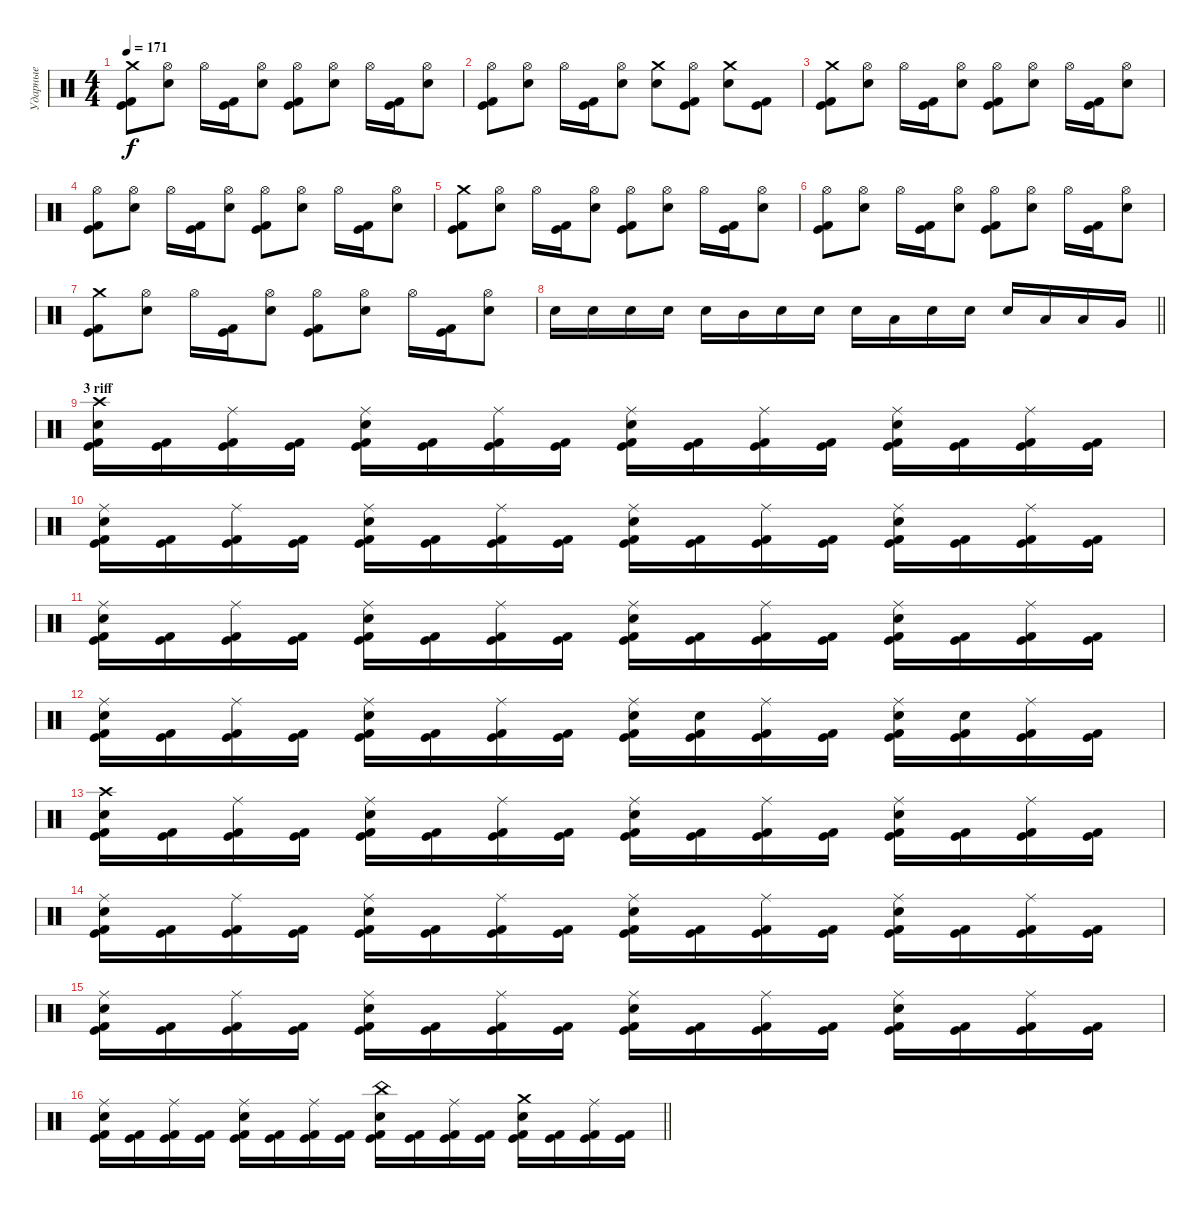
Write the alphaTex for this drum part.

\track ("Ударные" "Ударные") {instrument percussion}
\staff {score}
\articulation defaults
\ts (4 4)
\tempo 171
\clef neutral
\ks c
("Crash medium (hit)" "Kick (hit)" "Kick (hit) 2").8{dy f} ("Hi-Hat (open)" "Electric Snare (hit)").8 "Hi-Hat (open)".16 ("Kick (hit)" "Kick (hit) 2").16 ("Hi-Hat (open)" "Electric Snare (hit)").8 ("Hi-Hat (open)" "Kick (hit)" "Kick (hit) 2").8 ("Hi-Hat (open)" "Electric Snare (hit)").8 "Hi-Hat (open)".16 ("Kick (hit)" "Kick (hit) 2").16 ("Hi-Hat (open)" "Electric Snare (hit)").8 |
("Hi-Hat (open)" "Kick (hit)" "Kick (hit) 2").8 ("Hi-Hat (open)" "Electric Snare (hit)").8 "Hi-Hat (open)".16 ("Kick (hit)" "Kick (hit) 2").16 ("Hi-Hat (open)" "Electric Snare (hit)").8 ("Crash medium (hit)" "Electric Snare (hit)").8 ("Hi-Hat (open)" "Kick (hit)" "Kick (hit) 2").8 ("Crash medium (hit)" "Electric Snare (hit)").8 ("Kick (hit)" "Kick (hit) 2").8 |
("Crash medium (hit)" "Kick (hit)" "Kick (hit) 2").8 ("Hi-Hat (open)" "Electric Snare (hit)").8 "Hi-Hat (open)".16 ("Kick (hit)" "Kick (hit) 2").16 ("Hi-Hat (open)" "Electric Snare (hit)").8 ("Hi-Hat (open)" "Kick (hit)" "Kick (hit) 2").8 ("Hi-Hat (open)" "Electric Snare (hit)").8 "Hi-Hat (open)".16 ("Kick (hit)" "Kick (hit) 2").16 ("Hi-Hat (open)" "Electric Snare (hit)").8 |
("Hi-Hat (open)" "Kick (hit)" "Kick (hit) 2").8 ("Hi-Hat (open)" "Electric Snare (hit)").8 "Hi-Hat (open)".16 ("Kick (hit)" "Kick (hit) 2").16 ("Hi-Hat (open)" "Electric Snare (hit)").8 ("Hi-Hat (open)" "Kick (hit)" "Kick (hit) 2").8 ("Hi-Hat (open)" "Electric Snare (hit)").8 "Hi-Hat (open)".16 ("Kick (hit)" "Kick (hit) 2").16 ("Hi-Hat (open)" "Electric Snare (hit)").8 |
("Crash medium (hit)" "Kick (hit)" "Kick (hit) 2").8 ("Hi-Hat (open)" "Electric Snare (hit)").8 "Hi-Hat (open)".16 ("Kick (hit)" "Kick (hit) 2").16 ("Hi-Hat (open)" "Electric Snare (hit)").8 ("Hi-Hat (open)" "Kick (hit)" "Kick (hit) 2").8 ("Hi-Hat (open)" "Electric Snare (hit)").8 "Hi-Hat (open)".16 ("Kick (hit)" "Kick (hit) 2").16 ("Hi-Hat (open)" "Electric Snare (hit)").8 |
("Hi-Hat (open)" "Kick (hit)" "Kick (hit) 2").8 ("Hi-Hat (open)" "Electric Snare (hit)").8 "Hi-Hat (open)".16 ("Kick (hit)" "Kick (hit) 2").16 ("Hi-Hat (open)" "Electric Snare (hit)").8 ("Hi-Hat (open)" "Kick (hit)" "Kick (hit) 2").8 ("Hi-Hat (open)" "Electric Snare (hit)").8 "Hi-Hat (open)".16 ("Kick (hit)" "Kick (hit) 2").16 ("Hi-Hat (open)" "Electric Snare (hit)").8 |
("Crash medium (hit)" "Kick (hit)" "Kick (hit) 2").8 ("Hi-Hat (open)" "Electric Snare (hit)").8 "Hi-Hat (open)".16 ("Kick (hit)" "Kick (hit) 2").16 ("Hi-Hat (open)" "Electric Snare (hit)").8 ("Hi-Hat (open)" "Kick (hit)" "Kick (hit) 2").8 ("Hi-Hat (open)" "Electric Snare (hit)").8 "Hi-Hat (open)".16 ("Kick (hit)" "Kick (hit) 2").16 ("Hi-Hat (open)" "Electric Snare (hit)").8 |
\barLineRight lightlight "Electric Snare (hit)".16 "Electric Snare (hit)".16 "Electric Snare (hit)".16 "Electric Snare (hit)".16 "Electric Snare (hit)".16 "Mid Tom (hit)".16 "Electric Snare (hit)".16 "Electric Snare (hit)".16 "Electric Snare (hit)".16 "Low Tom (hit)".16 "Electric Snare (hit)".16 "Electric Snare (hit)".16 "Electric Snare (hit)".16 "Low Tom (hit)".16 "Low Tom (hit)".16 "Very Low Tom (hit)".16
|
\section ("" "3 riff")
("Crash high (hit)" "Electric Snare (hit)" "Kick (hit)" "Kick (hit) 2").16 ("Kick (hit)" "Kick (hit) 2").16 ("Ride (middle)" "Kick (hit)" "Kick (hit) 2").16 ("Kick (hit)" "Kick (hit) 2").16 ("Ride (middle)" "Electric Snare (hit)" "Kick (hit)" "Kick (hit) 2").16 ("Kick (hit)" "Kick (hit) 2").16 ("Ride (middle)" "Kick (hit)" "Kick (hit) 2").16 ("Kick (hit)" "Kick (hit) 2").16 ("Ride (middle)" "Electric Snare (hit)" "Kick (hit)" "Kick (hit) 2").16 ("Kick (hit)" "Kick (hit) 2").16 ("Ride (middle)" "Kick (hit)" "Kick (hit) 2").16 ("Kick (hit)" "Kick (hit) 2").16 ("Ride (middle)" "Electric Snare (hit)" "Kick (hit)" "Kick (hit) 2").16 ("Kick (hit)" "Kick (hit) 2").16 ("Ride (middle)" "Kick (hit)" "Kick (hit) 2").16 ("Kick (hit)" "Kick (hit) 2").16 |
("Ride (middle)" "Electric Snare (hit)" "Kick (hit)" "Kick (hit) 2").16 ("Kick (hit)" "Kick (hit) 2").16 ("Ride (middle)" "Kick (hit)" "Kick (hit) 2").16 ("Kick (hit)" "Kick (hit) 2").16 ("Ride (middle)" "Electric Snare (hit)" "Kick (hit)" "Kick (hit) 2").16 ("Kick (hit)" "Kick (hit) 2").16 ("Ride (middle)" "Kick (hit)" "Kick (hit) 2").16 ("Kick (hit)" "Kick (hit) 2").16 ("Ride (middle)" "Electric Snare (hit)" "Kick (hit)" "Kick (hit) 2").16 ("Kick (hit)" "Kick (hit) 2").16 ("Ride (middle)" "Kick (hit)" "Kick (hit) 2").16 ("Kick (hit)" "Kick (hit) 2").16 ("Ride (middle)" "Electric Snare (hit)" "Kick (hit)" "Kick (hit) 2").16 ("Kick (hit)" "Kick (hit) 2").16 ("Ride (middle)" "Kick (hit)" "Kick (hit) 2").16 ("Kick (hit)" "Kick (hit) 2").16 |
("Ride (middle)" "Electric Snare (hit)" "Kick (hit)" "Kick (hit) 2").16 ("Kick (hit)" "Kick (hit) 2").16 ("Ride (middle)" "Kick (hit)" "Kick (hit) 2").16 ("Kick (hit)" "Kick (hit) 2").16 ("Ride (middle)" "Electric Snare (hit)" "Kick (hit)" "Kick (hit) 2").16 ("Kick (hit)" "Kick (hit) 2").16 ("Ride (middle)" "Kick (hit)" "Kick (hit) 2").16 ("Kick (hit)" "Kick (hit) 2").16 ("Ride (middle)" "Electric Snare (hit)" "Kick (hit)" "Kick (hit) 2").16 ("Kick (hit)" "Kick (hit) 2").16 ("Ride (middle)" "Kick (hit)" "Kick (hit) 2").16 ("Kick (hit)" "Kick (hit) 2").16 ("Ride (middle)" "Electric Snare (hit)" "Kick (hit)" "Kick (hit) 2").16 ("Kick (hit)" "Kick (hit) 2").16 ("Ride (middle)" "Kick (hit)" "Kick (hit) 2").16 ("Kick (hit)" "Kick (hit) 2").16 |
("Ride (middle)" "Electric Snare (hit)" "Kick (hit)" "Kick (hit) 2").16 ("Kick (hit)" "Kick (hit) 2").16 ("Ride (middle)" "Kick (hit)" "Kick (hit) 2").16 ("Kick (hit)" "Kick (hit) 2").16 ("Ride (middle)" "Electric Snare (hit)" "Kick (hit)" "Kick (hit) 2").16 ("Kick (hit)" "Kick (hit) 2").16 ("Ride (middle)" "Kick (hit)" "Kick (hit) 2").16 ("Kick (hit)" "Kick (hit) 2").16 ("Ride (middle)" "Electric Snare (hit)" "Kick (hit)" "Kick (hit) 2").16 ("Electric Snare (hit)" "Kick (hit)" "Kick (hit) 2").16 ("Ride (middle)" "Kick (hit)" "Kick (hit) 2").16 ("Kick (hit)" "Kick (hit) 2").16 ("Ride (middle)" "Electric Snare (hit)" "Kick (hit)" "Kick (hit) 2").16 ("Electric Snare (hit)" "Kick (hit)" "Kick (hit) 2").16 ("Ride (middle)" "Kick (hit)" "Kick (hit) 2").16 ("Kick (hit)" "Kick (hit) 2").16 |
("Crash high (hit)" "Electric Snare (hit)" "Kick (hit)" "Kick (hit) 2").16 ("Kick (hit)" "Kick (hit) 2").16 ("Ride (middle)" "Kick (hit)" "Kick (hit) 2").16 ("Kick (hit)" "Kick (hit) 2").16 ("Ride (middle)" "Electric Snare (hit)" "Kick (hit)" "Kick (hit) 2").16 ("Kick (hit)" "Kick (hit) 2").16 ("Ride (middle)" "Kick (hit)" "Kick (hit) 2").16 ("Kick (hit)" "Kick (hit) 2").16 ("Ride (middle)" "Electric Snare (hit)" "Kick (hit)" "Kick (hit) 2").16 ("Kick (hit)" "Kick (hit) 2").16 ("Ride (middle)" "Kick (hit)" "Kick (hit) 2").16 ("Kick (hit)" "Kick (hit) 2").16 ("Ride (middle)" "Electric Snare (hit)" "Kick (hit)" "Kick (hit) 2").16 ("Kick (hit)" "Kick (hit) 2").16 ("Ride (middle)" "Kick (hit)" "Kick (hit) 2").16 ("Kick (hit)" "Kick (hit) 2").16 |
("Ride (middle)" "Electric Snare (hit)" "Kick (hit)" "Kick (hit) 2").16 ("Kick (hit)" "Kick (hit) 2").16 ("Ride (middle)" "Kick (hit)" "Kick (hit) 2").16 ("Kick (hit)" "Kick (hit) 2").16 ("Ride (middle)" "Electric Snare (hit)" "Kick (hit)" "Kick (hit) 2").16 ("Kick (hit)" "Kick (hit) 2").16 ("Ride (middle)" "Kick (hit)" "Kick (hit) 2").16 ("Kick (hit)" "Kick (hit) 2").16 ("Ride (middle)" "Electric Snare (hit)" "Kick (hit)" "Kick (hit) 2").16 ("Kick (hit)" "Kick (hit) 2").16 ("Ride (middle)" "Kick (hit)" "Kick (hit) 2").16 ("Kick (hit)" "Kick (hit) 2").16 ("Ride (middle)" "Electric Snare (hit)" "Kick (hit)" "Kick (hit) 2").16 ("Kick (hit)" "Kick (hit) 2").16 ("Ride (middle)" "Kick (hit)" "Kick (hit) 2").16 ("Kick (hit)" "Kick (hit) 2").16 |
("Ride (middle)" "Electric Snare (hit)" "Kick (hit)" "Kick (hit) 2").16 ("Kick (hit)" "Kick (hit) 2").16 ("Ride (middle)" "Kick (hit)" "Kick (hit) 2").16 ("Kick (hit)" "Kick (hit) 2").16 ("Ride (middle)" "Electric Snare (hit)" "Kick (hit)" "Kick (hit) 2").16 ("Kick (hit)" "Kick (hit) 2").16 ("Ride (middle)" "Kick (hit)" "Kick (hit) 2").16 ("Kick (hit)" "Kick (hit) 2").16 ("Ride (middle)" "Electric Snare (hit)" "Kick (hit)" "Kick (hit) 2").16 ("Kick (hit)" "Kick (hit) 2").16 ("Ride (middle)" "Kick (hit)" "Kick (hit) 2").16 ("Kick (hit)" "Kick (hit) 2").16 ("Ride (middle)" "Electric Snare (hit)" "Kick (hit)" "Kick (hit) 2").16 ("Kick (hit)" "Kick (hit) 2").16 ("Ride (middle)" "Kick (hit)" "Kick (hit) 2").16 ("Kick (hit)" "Kick (hit) 2").16 |
\barLineRight lightlight
("Ride (middle)" "Electric Snare (hit)" "Kick (hit)" "Kick (hit) 2").16 ("Kick (hit)" "Kick (hit) 2").16 ("Ride (middle)" "Kick (hit)" "Kick (hit) 2").16 ("Kick (hit)" "Kick (hit) 2").16 ("Ride (middle)" "Electric Snare (hit)" "Kick (hit)" "Kick (hit) 2").16 ("Kick (hit)" "Kick (hit) 2").16 ("Ride (middle)" "Kick (hit)" "Kick (hit) 2").16 ("Kick (hit)" "Kick (hit) 2").16 ("China (hit)" "Electric Snare (hit)" "Kick (hit)" "Kick (hit) 2").16 ("Kick (hit)" "Kick (hit) 2").16 ("Ride (middle)" "Kick (hit)" "Kick (hit) 2").16 ("Kick (hit)" "Kick (hit) 2").16 ("Crash medium (hit)" "Electric Snare (hit)" "Kick (hit)" "Kick (hit) 2").16 ("Kick (hit)" "Kick (hit) 2").16 ("Ride (middle)" "Kick (hit)" "Kick (hit) 2").16 ("Kick (hit)" "Kick (hit) 2").16
